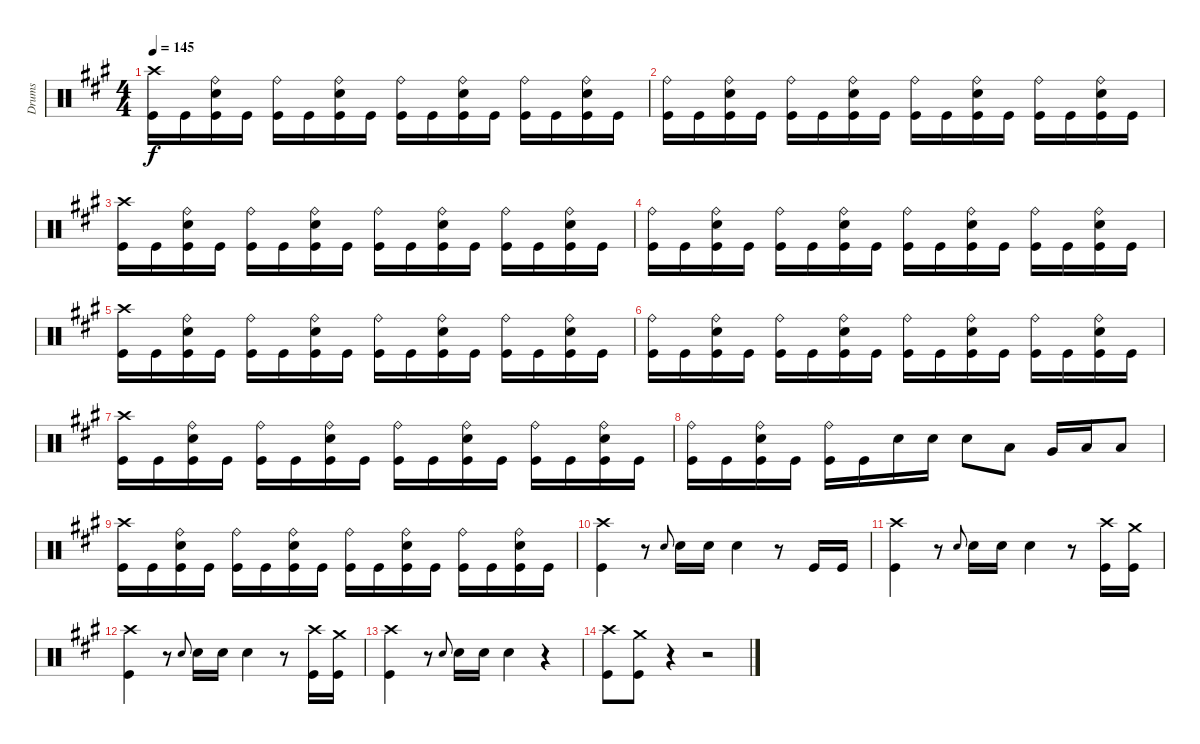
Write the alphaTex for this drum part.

\track ("Drums" "Drums") {instrument percussion}
\staff {score}
\articulation defaults
\ts (4 4)
\tempo 145
\clef neutral
\ks f#minor
("Crash high (hit)" "Kick (hit)").16{dy f} "Kick (hit)".16 ("Ride (bell)" "Snare (hit) 2" "Kick (hit)").16 "Kick (hit)".16 ("Ride (bell)" "Kick (hit)").16 "Kick (hit)".16 ("Ride (bell)" "Snare (hit) 2" "Kick (hit)").16 "Kick (hit)".16 ("Ride (bell)" "Kick (hit)").16 "Kick (hit)".16 ("Ride (bell)" "Snare (hit) 2" "Kick (hit)").16 "Kick (hit)".16 ("Ride (bell)" "Kick (hit)").16 "Kick (hit)".16 ("Ride (bell)" "Snare (hit) 2" "Kick (hit)").16 "Kick (hit)".16 |
("Ride (bell)" "Kick (hit)").16 "Kick (hit)".16 ("Ride (bell)" "Snare (hit) 2" "Kick (hit)").16 "Kick (hit)".16 ("Ride (bell)" "Kick (hit)").16 "Kick (hit)".16 ("Ride (bell)" "Snare (hit) 2" "Kick (hit)").16 "Kick (hit)".16 ("Ride (bell)" "Kick (hit)").16 "Kick (hit)".16 ("Ride (bell)" "Snare (hit) 2" "Kick (hit)").16 "Kick (hit)".16 ("Ride (bell)" "Kick (hit)").16 "Kick (hit)".16 ("Ride (bell)" "Snare (hit) 2" "Kick (hit)").16 "Kick (hit)".16 |
("Crash high (hit)" "Kick (hit)").16 "Kick (hit)".16 ("Ride (bell)" "Snare (hit) 2" "Kick (hit)").16 "Kick (hit)".16 ("Ride (bell)" "Kick (hit)").16 "Kick (hit)".16 ("Ride (bell)" "Snare (hit) 2" "Kick (hit)").16 "Kick (hit)".16 ("Ride (bell)" "Kick (hit)").16 "Kick (hit)".16 ("Ride (bell)" "Snare (hit) 2" "Kick (hit)").16 "Kick (hit)".16 ("Ride (bell)" "Kick (hit)").16 "Kick (hit)".16 ("Ride (bell)" "Snare (hit) 2" "Kick (hit)").16 "Kick (hit)".16 |
("Ride (bell)" "Kick (hit)").16 "Kick (hit)".16 ("Ride (bell)" "Snare (hit) 2" "Kick (hit)").16 "Kick (hit)".16 ("Ride (bell)" "Kick (hit)").16 "Kick (hit)".16 ("Ride (bell)" "Snare (hit) 2" "Kick (hit)").16 "Kick (hit)".16 ("Ride (bell)" "Kick (hit)").16 "Kick (hit)".16 ("Ride (bell)" "Snare (hit) 2" "Kick (hit)").16 "Kick (hit)".16 ("Ride (bell)" "Kick (hit)").16 "Kick (hit)".16 ("Ride (bell)" "Snare (hit) 2" "Kick (hit)").16 "Kick (hit)".16 |
("Crash high (hit)" "Kick (hit)").16 "Kick (hit)".16 ("Ride (bell)" "Snare (hit) 2" "Kick (hit)").16 "Kick (hit)".16 ("Ride (bell)" "Kick (hit)").16 "Kick (hit)".16 ("Ride (bell)" "Snare (hit) 2" "Kick (hit)").16 "Kick (hit)".16 ("Ride (bell)" "Kick (hit)").16 "Kick (hit)".16 ("Ride (bell)" "Snare (hit) 2" "Kick (hit)").16 "Kick (hit)".16 ("Ride (bell)" "Kick (hit)").16 "Kick (hit)".16 ("Ride (bell)" "Snare (hit) 2" "Kick (hit)").16 "Kick (hit)".16 |
("Ride (bell)" "Kick (hit)").16 "Kick (hit)".16 ("Ride (bell)" "Snare (hit) 2" "Kick (hit)").16 "Kick (hit)".16 ("Ride (bell)" "Kick (hit)").16 "Kick (hit)".16 ("Ride (bell)" "Snare (hit) 2" "Kick (hit)").16 "Kick (hit)".16 ("Ride (bell)" "Kick (hit)").16 "Kick (hit)".16 ("Ride (bell)" "Snare (hit) 2" "Kick (hit)").16 "Kick (hit)".16 ("Ride (bell)" "Kick (hit)").16 "Kick (hit)".16 ("Ride (bell)" "Snare (hit) 2" "Kick (hit)").16 "Kick (hit)".16 |
("Crash high (hit)" "Kick (hit)").16 "Kick (hit)".16 ("Ride (bell)" "Snare (hit) 2" "Kick (hit)").16 "Kick (hit)".16 ("Ride (bell)" "Kick (hit)").16 "Kick (hit)".16 ("Ride (bell)" "Snare (hit) 2" "Kick (hit)").16 "Kick (hit)".16 ("Ride (bell)" "Kick (hit)").16 "Kick (hit)".16 ("Ride (bell)" "Snare (hit) 2" "Kick (hit)").16 "Kick (hit)".16 ("Ride (bell)" "Kick (hit)").16 "Kick (hit)".16 ("Ride (bell)" "Snare (hit) 2" "Kick (hit)").16 "Kick (hit)".16 |
("Ride (bell)" "Kick (hit)").16 "Kick (hit)".16 ("Ride (bell)" "Snare (hit) 2" "Kick (hit)").16 "Kick (hit)".16 ("Ride (bell)" "Kick (hit)").16 "Kick (hit)".16 "Snare (hit) 2".16 "Snare (hit) 2".16 "Snare (hit) 2".8 "Low Tom (hit)".8 "Very Low Tom (hit)".16 "Low Tom (hit)".16 "Low Floor Tom (hit)".8 |
("Crash high (hit)" "Kick (hit)").16 "Kick (hit)".16 ("Ride (bell)" "Snare (hit) 2" "Kick (hit)").16 "Kick (hit)".16 ("Ride (bell)" "Kick (hit)").16 "Kick (hit)".16 ("Ride (bell)" "Snare (hit) 2" "Kick (hit)").16 "Kick (hit)".16 ("Ride (bell)" "Kick (hit)").16 "Kick (hit)".16 ("Ride (bell)" "Snare (hit) 2" "Kick (hit)").16 "Kick (hit)".16 ("Ride (bell)" "Kick (hit)").16 "Kick (hit)".16 ("Ride (bell)" "Snare (hit) 2" "Kick (hit)").16 "Kick (hit)".16 |
("Crash high (hit)" "Kick (hit)").4 r.8 "Snare (hit) 2".8{gr onbeat} "Snare (hit) 2".16 "Snare (hit) 2".16 "Snare (hit) 2".4 r.8 "Kick (hit)".16 "Kick (hit)".16 |
("Crash high (hit)" "Kick (hit)").4 r.8 "Snare (hit) 2".8{gr onbeat} "Snare (hit) 2".16 "Snare (hit) 2".16 "Snare (hit) 2".4 r.8 ("Crash high (hit)" "Kick (hit)").16 ("Crash medium (hit)" "Kick (hit)").16 |
("Crash high (hit)" "Kick (hit)").4 r.8 "Snare (hit) 2".8{gr onbeat} "Snare (hit) 2".16 "Snare (hit) 2".16 "Snare (hit) 2".4 r.8 ("Crash high (hit)" "Kick (hit)").16 ("Crash medium (hit)" "Kick (hit)").16 |
("Crash high (hit)" "Kick (hit)").4 r.8 "Snare (hit) 2".8{gr onbeat} "Snare (hit) 2".16 "Snare (hit) 2".16 "Snare (hit) 2".4 r.4 |
("Crash high (hit)" "Kick (hit)").8 ("Crash medium (hit)" "Kick (hit)").8 r.4 r.2
